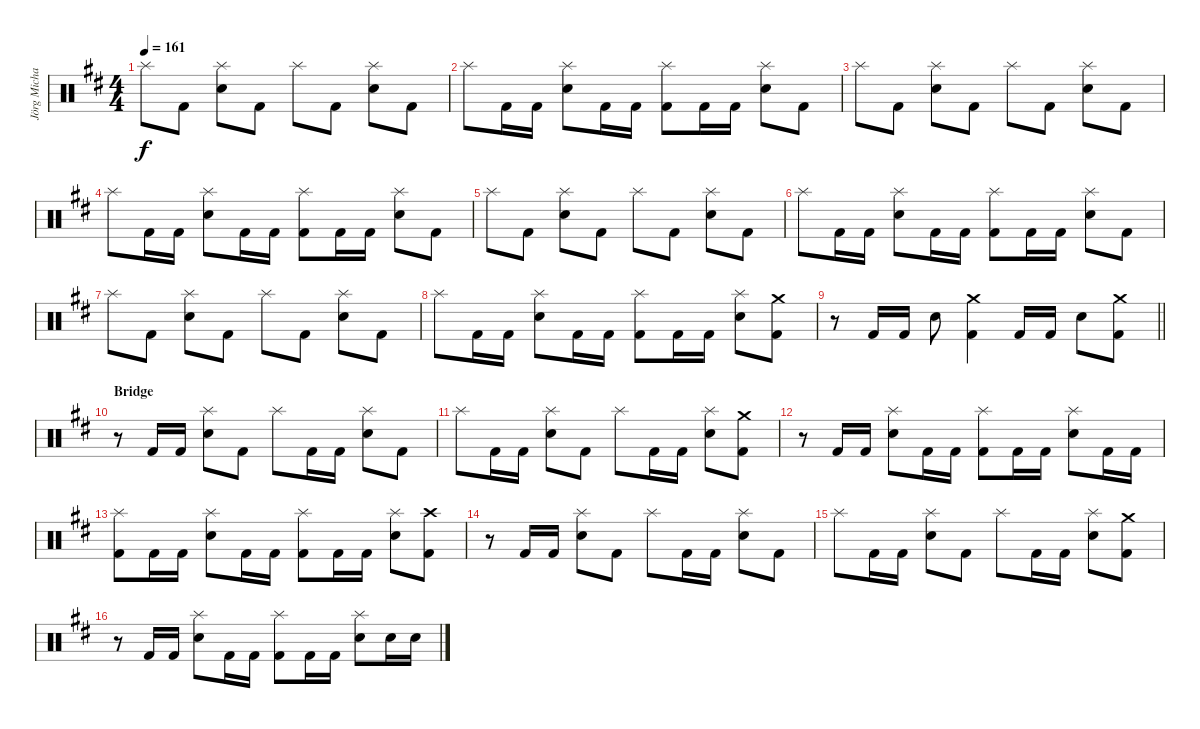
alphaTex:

\track ("Jörg Michael" "Jörg Micha") {instrument percussion}
\staff {score}
\articulation defaults
\ts (4 4)
\tempo 161
\clef neutral
\ks bminor "Splash (hit)".8{dy f} "Kick (hit) 2".8
("Splash (hit)" "Snare (hit) 2").8 "Kick (hit) 2".8 "Splash (hit)".8 "Kick (hit) 2".8 ("Splash (hit)" "Snare (hit) 2").8 "Kick (hit) 2".8 |
"Splash (hit)".8 "Kick (hit) 2".16 "Kick (hit) 2".16 ("Splash (hit)" "Snare (hit) 2").8 "Kick (hit) 2".16 "Kick (hit) 2".16 ("Splash (hit)" "Kick (hit) 2").8 "Kick (hit) 2".16 "Kick (hit) 2".16 ("Splash (hit)" "Snare (hit) 2").8 "Kick (hit) 2".8 |
"Splash (hit)".8 "Kick (hit) 2".8 ("Splash (hit)" "Snare (hit) 2").8 "Kick (hit) 2".8 "Splash (hit)".8 "Kick (hit) 2".8 ("Splash (hit)" "Snare (hit) 2").8 "Kick (hit) 2".8 |
"Splash (hit)".8 "Kick (hit) 2".16 "Kick (hit) 2".16 ("Splash (hit)" "Snare (hit) 2").8 "Kick (hit) 2".16 "Kick (hit) 2".16 ("Splash (hit)" "Kick (hit) 2").8 "Kick (hit) 2".16 "Kick (hit) 2".16 ("Splash (hit)" "Snare (hit) 2").8 "Kick (hit) 2".8 |
"Splash (hit)".8 "Kick (hit) 2".8 ("Splash (hit)" "Snare (hit) 2").8 "Kick (hit) 2".8 "Splash (hit)".8 "Kick (hit) 2".8 ("Splash (hit)" "Snare (hit) 2").8 "Kick (hit) 2".8 |
"Splash (hit)".8 "Kick (hit) 2".16 "Kick (hit) 2".16 ("Splash (hit)" "Snare (hit) 2").8 "Kick (hit) 2".16 "Kick (hit) 2".16 ("Splash (hit)" "Kick (hit) 2").8 "Kick (hit) 2".16 "Kick (hit) 2".16 ("Splash (hit)" "Snare (hit) 2").8 "Kick (hit) 2".8 |
"Splash (hit)".8 "Kick (hit) 2".8 ("Splash (hit)" "Snare (hit) 2").8 "Kick (hit) 2".8 "Splash (hit)".8 "Kick (hit) 2".8 ("Splash (hit)" "Snare (hit) 2").8 "Kick (hit) 2".8 |
"Splash (hit)".8 "Kick (hit) 2".16 "Kick (hit) 2".16 ("Splash (hit)" "Snare (hit) 2").8 "Kick (hit) 2".16 "Kick (hit) 2".16 ("Splash (hit)" "Kick (hit) 2").8 "Kick (hit) 2".16 "Kick (hit) 2".16 ("Splash (hit)" "Snare (hit) 2").8 ("Crash medium (hit)" "Kick (hit) 2").8 |
\barLineRight lightlight
r.8 "Kick (hit) 2".16 "Kick (hit) 2".16 "Snare (hit) 2".8 ("Crash medium (hit)" "Kick (hit) 2").4 "Kick (hit) 2".16 "Kick (hit) 2".16 "Snare (hit) 2".8 ("Crash medium (hit)" "Kick (hit) 2").8 |
\section ("" "Bridge")
r.8 "Kick (hit) 2".16 "Kick (hit) 2".16 ("Splash (hit)" "Snare (hit) 2").8 "Kick (hit) 2".8 "Splash (hit)".8 "Kick (hit) 2".16 "Kick (hit) 2".16 ("Splash (hit)" "Snare (hit) 2").8 "Kick (hit) 2".8 |
"Splash (hit)".8 "Kick (hit) 2".16 "Kick (hit) 2".16 ("Splash (hit)" "Snare (hit) 2").8 "Kick (hit) 2".8 "Splash (hit)".8 "Kick (hit) 2".16 "Kick (hit) 2".16 ("Splash (hit)" "Snare (hit) 2").8 ("Crash medium (hit)" "Kick (hit) 2").8 |
r.8 "Kick (hit) 2".16 "Kick (hit) 2".16 ("Splash (hit)" "Snare (hit) 2").8 "Kick (hit) 2".16 "Kick (hit) 2".16 ("Splash (hit)" "Kick (hit) 2").8 "Kick (hit) 2".16 "Kick (hit) 2".16 ("Splash (hit)" "Snare (hit) 2").8 "Kick (hit) 2".16 "Kick (hit) 2".16 |
("Splash (hit)" "Kick (hit) 2").8 "Kick (hit) 2".16 "Kick (hit) 2".16 ("Splash (hit)" "Snare (hit) 2").8 "Kick (hit) 2".16 "Kick (hit) 2".16 ("Splash (hit)" "Kick (hit) 2").8 "Kick (hit) 2".16 "Kick (hit) 2".16 ("Splash (hit)" "Snare (hit) 2").8 ("Crash high (hit)" "Kick (hit) 2").8 |
r.8 "Kick (hit) 2".16 "Kick (hit) 2".16 ("Splash (hit)" "Snare (hit) 2").8 "Kick (hit) 2".8 "Splash (hit)".8 "Kick (hit) 2".16 "Kick (hit) 2".16 ("Splash (hit)" "Snare (hit) 2").8 "Kick (hit) 2".8 |
"Splash (hit)".8 "Kick (hit) 2".16 "Kick (hit) 2".16 ("Splash (hit)" "Snare (hit) 2").8 "Kick (hit) 2".8 "Splash (hit)".8 "Kick (hit) 2".16 "Kick (hit) 2".16 ("Splash (hit)" "Snare (hit) 2").8 ("Crash medium (hit)" "Kick (hit) 2").8 |
r.8 "Kick (hit) 2".16 "Kick (hit) 2".16 ("Splash (hit)" "Snare (hit) 2").8 "Kick (hit) 2".16 "Kick (hit) 2".16 ("Splash (hit)" "Kick (hit) 2").8 "Kick (hit) 2".16 "Kick (hit) 2".16 ("Splash (hit)" "Snare (hit) 2").8 "Snare (hit) 2".16 "Snare (hit) 2".16
